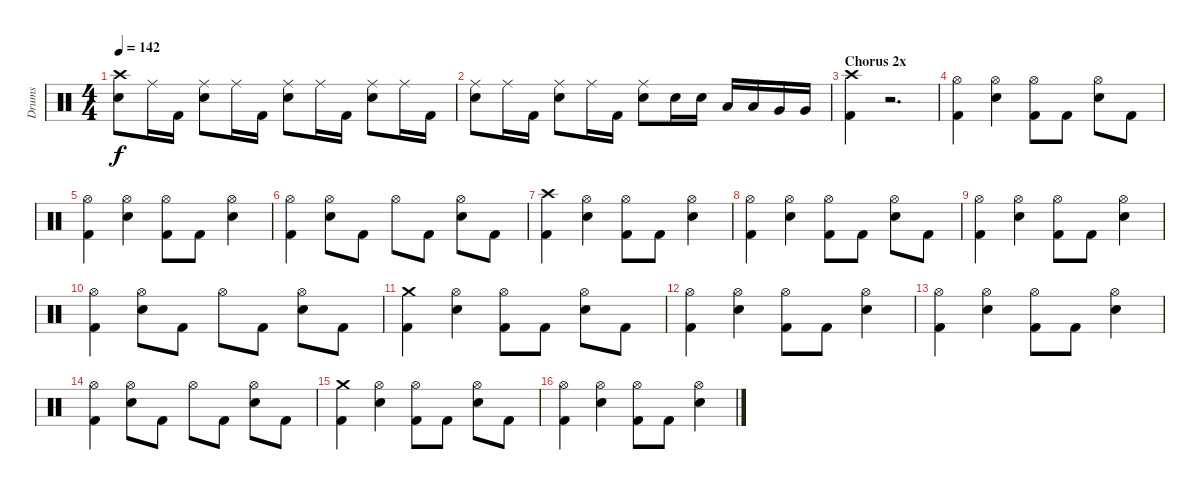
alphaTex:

\track ("Drums" "Drums") {instrument percussion}
\staff {score}
\articulation defaults
\ts (4 4)
\tempo 142
\clef neutral
\ks c
("Crash high (hit)" "Electric Snare (hit)").8{dy f} "Ride (middle)".16 "Kick (hit) 2".16 ("Ride (middle)" "Electric Snare (hit)").8 "Ride (middle)".16 "Kick (hit) 2".16 ("Ride (middle)" "Electric Snare (hit)").8 "Ride (middle)".16 "Kick (hit) 2".16 ("Ride (middle)" "Electric Snare (hit)").8 "Ride (middle)".16 "Kick (hit) 2".16 |
("Ride (middle)" "Electric Snare (hit)").8 "Ride (middle)".16 "Kick (hit) 2".16 ("Ride (middle)" "Electric Snare (hit)").8 "Ride (middle)".16 "Kick (hit) 2".16 ("Ride (middle)" "Electric Snare (hit)").8 "Electric Snare (hit)".16 "Electric Snare (hit)".16 "Low Tom (hit)".16 "Low Tom (hit)".16 "Very Low Tom (hit)".16 "Very Low Tom (hit)".16 |
\section ("" "Chorus 2x")
("Crash high (hit)" "Kick (hit) 2").4 r.2{d} |
("Hi-Hat (open)" "Kick (hit) 2").4 ("Hi-Hat (open)" "Electric Snare (hit)").4 ("Hi-Hat (open)" "Kick (hit) 2").8 "Kick (hit) 2".8 ("Hi-Hat (open)" "Electric Snare (hit)").8 "Kick (hit) 2".8 |
("Hi-Hat (open)" "Kick (hit) 2").4 ("Hi-Hat (open)" "Electric Snare (hit)").4 ("Hi-Hat (open)" "Kick (hit) 2").8 "Kick (hit) 2".8 ("Hi-Hat (open)" "Electric Snare (hit)").4 |
("Hi-Hat (open)" "Kick (hit) 2").4 ("Hi-Hat (open)" "Electric Snare (hit)").8 "Kick (hit) 2".8 "Hi-Hat (open)".8 "Kick (hit) 2".8 ("Hi-Hat (open)" "Electric Snare (hit)").8 "Kick (hit) 2".8 |
("Crash high (hit)" "Kick (hit) 2").4 ("Hi-Hat (open)" "Electric Snare (hit)").4 ("Hi-Hat (open)" "Kick (hit) 2").8 "Kick (hit) 2".8 ("Hi-Hat (open)" "Electric Snare (hit)").4 |
("Hi-Hat (open)" "Kick (hit) 2").4 ("Hi-Hat (open)" "Electric Snare (hit)").4 ("Hi-Hat (open)" "Kick (hit) 2").8 "Kick (hit) 2".8 ("Hi-Hat (open)" "Electric Snare (hit)").8 "Kick (hit) 2".8 |
("Hi-Hat (open)" "Kick (hit) 2").4 ("Hi-Hat (open)" "Electric Snare (hit)").4 ("Hi-Hat (open)" "Kick (hit) 2").8 "Kick (hit) 2".8 ("Hi-Hat (open)" "Electric Snare (hit)").4 |
("Hi-Hat (open)" "Kick (hit) 2").4 ("Hi-Hat (open)" "Electric Snare (hit)").8 "Kick (hit) 2".8 "Hi-Hat (open)".8 "Kick (hit) 2".8 ("Hi-Hat (open)" "Electric Snare (hit)").8 "Kick (hit) 2".8 |
("Crash medium (hit)" "Kick (hit) 2").4 ("Hi-Hat (open)" "Electric Snare (hit)").4 ("Hi-Hat (open)" "Kick (hit) 2").8 "Kick (hit) 2".8 ("Hi-Hat (open)" "Electric Snare (hit)").8 "Kick (hit) 2".8 |
("Hi-Hat (open)" "Kick (hit) 2").4 ("Hi-Hat (open)" "Electric Snare (hit)").4 ("Hi-Hat (open)" "Kick (hit) 2").8 "Kick (hit) 2".8 ("Hi-Hat (open)" "Electric Snare (hit)").4 |
("Hi-Hat (open)" "Kick (hit) 2").4 ("Hi-Hat (open)" "Electric Snare (hit)").4 ("Hi-Hat (open)" "Kick (hit) 2").8 "Kick (hit) 2".8 ("Hi-Hat (open)" "Electric Snare (hit)").4 |
("Hi-Hat (open)" "Kick (hit) 2").4 ("Hi-Hat (open)" "Electric Snare (hit)").8 "Kick (hit) 2".8 "Hi-Hat (open)".8 "Kick (hit) 2".8 ("Hi-Hat (open)" "Electric Snare (hit)").8 "Kick (hit) 2".8 |
("Crash medium (hit)" "Kick (hit) 2").4 ("Hi-Hat (open)" "Electric Snare (hit)").4 ("Hi-Hat (open)" "Kick (hit) 2").8 "Kick (hit) 2".8 ("Hi-Hat (open)" "Electric Snare (hit)").8 "Kick (hit) 2".8 |
("Hi-Hat (open)" "Kick (hit) 2").4 ("Hi-Hat (open)" "Electric Snare (hit)").4 ("Hi-Hat (open)" "Kick (hit) 2").8 "Kick (hit) 2".8 ("Hi-Hat (open)" "Electric Snare (hit)").4
